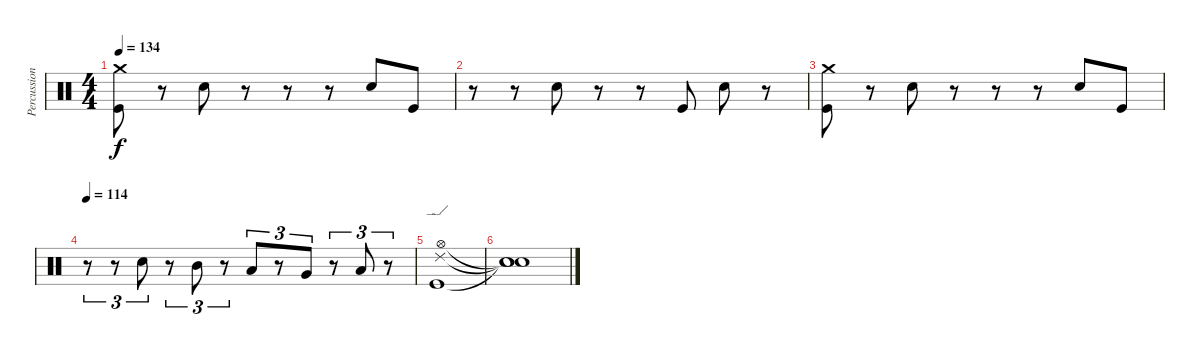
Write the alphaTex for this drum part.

\track ("Percussion" "Percussion") {instrument percussion}
\staff {score}
\articulation defaults
\ts (4 4)
\tempo 134
\clef neutral
\ks c
("Crash medium (hit)" "Kick (hit)").8{dy f} r.8 "Snare (hit) 2".8 r.8 r.8 r.8 "Snare (hit) 2".8 "Kick (hit)".8 |
r.8 r.8 "Snare (hit) 2".8 r.8 r.8 "Kick (hit)".8 "Snare (hit) 2".8 r.8 |
("Crash medium (hit)" "Kick (hit)").8 r.8 "Snare (hit) 2".8 r.8 r.8 r.8 "Snare (hit) 2".8 "Kick (hit)".8 |
\tempo 114
r.8{tu (3 2)} r.8{tu (3 2)} "Snare (hit) 2".8{tu (3 2)} r.8{tu (3 2)} "Mid Tom (hit)".8{tu (3 2)} r.8{tu (3 2)} "Low Tom (hit)".8{tu (3 2)} r.8{tu (3 2)} "Very Low Tom (hit)".8{tu (3 2)} r.8{tu (3 2)} "Low Floor Tom (hit)".8{tu (3 2)} r.8{tu (3 2)} |
("Hi-Hat (open)" "Ride (edge) 2" "Kick (hit)").1 |
("Snare (hit)"{t} "Snare (hit)"{t} "Snare (hit)"{t}).1
